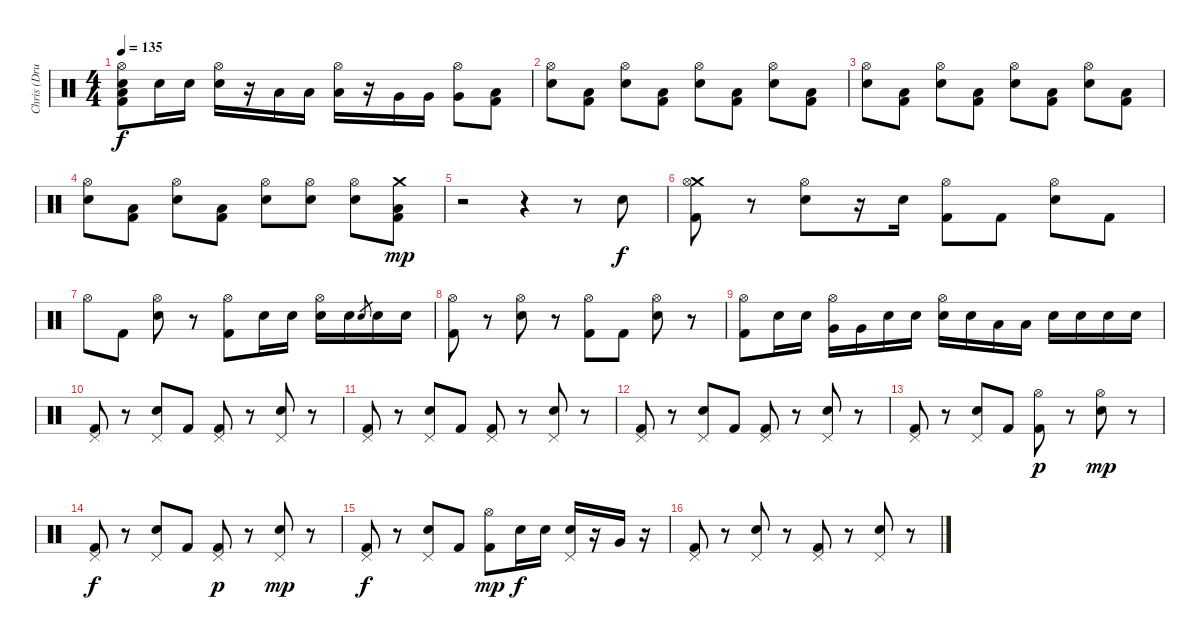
\track ("Chris (Drums)" "Chris (Dru") {instrument percussion}
\staff {score}
\articulation defaults
\ts (4 4)
\tempo 135
\clef neutral
\ks c
("Hi-Hat (open)" "Snare (hit) 2" "Low Floor Tom (hit)" "Kick (hit) 2").8{dy f} "Snare (hit) 2".16 "Snare (hit) 2".16 ("Hi-Hat (open)" "Snare (hit) 2").16 r.16 "Low Tom (hit)".16 "Low Tom (hit)".16 ("Hi-Hat (open)" "Low Tom (hit)").16 r.16 "Very Low Tom (hit)".16 "Very Low Tom (hit)".16 ("Hi-Hat (open)" "Very Low Tom (hit)").8 ("Low Floor Tom (hit)" "Kick (hit) 2").8 |
("Hi-Hat (open)" "Snare (hit) 2").8 ("Kick (hit) 2" "Low Floor Tom (hit)").8 ("Hi-Hat (open)" "Snare (hit) 2").8 ("Kick (hit) 2" "Low Floor Tom (hit)").8 ("Hi-Hat (open)" "Snare (hit) 2").8 ("Kick (hit) 2" "Low Floor Tom (hit)").8 ("Hi-Hat (open)" "Snare (hit) 2").8 ("Kick (hit) 2" "Low Floor Tom (hit)").8 |
("Hi-Hat (open)" "Snare (hit) 2").8 ("Kick (hit) 2" "Low Floor Tom (hit)").8 ("Hi-Hat (open)" "Snare (hit) 2").8 ("Kick (hit) 2" "Low Floor Tom (hit)").8 ("Hi-Hat (open)" "Snare (hit) 2").8 ("Kick (hit) 2" "Low Floor Tom (hit)").8 ("Hi-Hat (open)" "Snare (hit) 2").8 ("Kick (hit) 2" "Low Floor Tom (hit)").8 |
("Hi-Hat (open)" "Snare (hit) 2").8 ("Kick (hit) 2" "Low Floor Tom (hit)").8 ("Hi-Hat (open)" "Snare (hit) 2").8 ("Kick (hit) 2" "Low Floor Tom (hit)").8 ("Hi-Hat (open)" "Snare (hit) 2").8 ("Hi-Hat (open)" "Snare (hit) 2").8 ("Hi-Hat (open)" "Snare (hit) 2").8 ("Crash medium (hit)" "Kick (hit) 2" "Low Floor Tom (hit)").8{dy mp} |
r.2 r.4 r.8 "Snare (hit) 2".8{dy f} |
("Crash medium (hit)" "Hi-Hat (open)" "Kick (hit) 2").8 r.8 ("Hi-Hat (open)" "Snare (hit) 2").8 r.16 "Snare (hit) 2".16 ("Hi-Hat (open)" "Kick (hit) 2").8 "Kick (hit) 2".8 ("Hi-Hat (open)" "Snare (hit) 2").8 "Kick (hit) 2".8 |
"Hi-Hat (open)".8 "Kick (hit) 2".8 ("Hi-Hat (open)" "Snare (hit) 2").8 r.8 ("Hi-Hat (open)" "Kick (hit) 2").8 "Snare (hit) 2".16 "Snare (hit) 2".16 ("Hi-Hat (open)" "Snare (hit) 2").16 "Snare (hit) 2".16 "Snare (hit) 2".8{gr} "Snare (hit) 2".16 "Snare (hit) 2".16 |
("Hi-Hat (open)" "Kick (hit) 2").8 r.8 ("Hi-Hat (open)" "Snare (hit) 2").8 r.8 ("Hi-Hat (open)" "Kick (hit) 2").8 "Kick (hit) 2".8 ("Hi-Hat (open)" "Snare (hit) 2").8 r.8 |
("Hi-Hat (open)" "Kick (hit) 2").8 "Snare (hit) 2".16 "Snare (hit) 2".16 ("Hi-Hat (open)" "Very Low Tom (hit)").16 "Very Low Tom (hit)".16 "Snare (hit) 2".16 "Snare (hit) 2".16 ("Hi-Hat (open)" "Snare (hit) 2").16 "Snare (hit) 2".16 "Low Floor Tom (hit)".16 "Low Floor Tom (hit)".16 "Snare (hit) 2".16 "Snare (hit) 2".16 "Snare (hit) 2".16 "Snare (hit) 2".16 |
("Pedal Hi-Hat (hit)" "Kick (hit) 2").8 r.8 ("Pedal Hi-Hat (hit)" "Snare (hit) 2").8 "Kick (hit) 2".8 ("Pedal Hi-Hat (hit)" "Kick (hit) 2").8 r.8 ("Pedal Hi-Hat (hit)" "Snare (hit) 2").8 r.8 |
("Pedal Hi-Hat (hit)" "Kick (hit) 2").8 r.8 ("Pedal Hi-Hat (hit)" "Snare (hit) 2").8 "Kick (hit) 2".8 ("Pedal Hi-Hat (hit)" "Kick (hit) 2").8 r.8 ("Pedal Hi-Hat (hit)" "Snare (hit) 2").8 r.8 |
("Pedal Hi-Hat (hit)" "Kick (hit) 2").8 r.8 ("Pedal Hi-Hat (hit)" "Snare (hit) 2").8 "Kick (hit) 2".8 ("Pedal Hi-Hat (hit)" "Kick (hit) 2").8 r.8 ("Pedal Hi-Hat (hit)" "Snare (hit) 2").8 r.8 |
("Pedal Hi-Hat (hit)" "Kick (hit) 2").8 r.8 ("Pedal Hi-Hat (hit)" "Snare (hit) 2").8 "Kick (hit) 2".8 ("Hi-Hat (open)" "Kick (hit) 2").8{dy p} r.8 ("Hi-Hat (open)" "Snare (hit) 2").8{dy mp} r.8 |
("Pedal Hi-Hat (hit)" "Kick (hit) 2").8{dy f} r.8 ("Pedal Hi-Hat (hit)" "Snare (hit) 2").8 "Kick (hit) 2".8 ("Pedal Hi-Hat (hit)" "Kick (hit) 2").8{dy p} r.8 ("Pedal Hi-Hat (hit)" "Snare (hit) 2").8{dy mp} r.8 |
("Pedal Hi-Hat (hit)" "Kick (hit) 2").8{dy f} r.8 ("Pedal Hi-Hat (hit)" "Snare (hit) 2").8 "Kick (hit) 2".8 ("Hi-Hat (open)" "Kick (hit) 2").8{dy mp} "Snare (hit) 2".16{dy f} "Snare (hit) 2".16 ("Pedal Hi-Hat (hit)" "Snare (hit) 2").16 r.16 "Very Low Tom (hit)".16 r.16 |
("Pedal Hi-Hat (hit)" "Kick (hit) 2").8 r.8 ("Pedal Hi-Hat (hit)" "Snare (hit) 2").8 r.8 ("Pedal Hi-Hat (hit)" "Kick (hit) 2").8 r.8 ("Pedal Hi-Hat (hit)" "Snare (hit) 2").8 r.8
